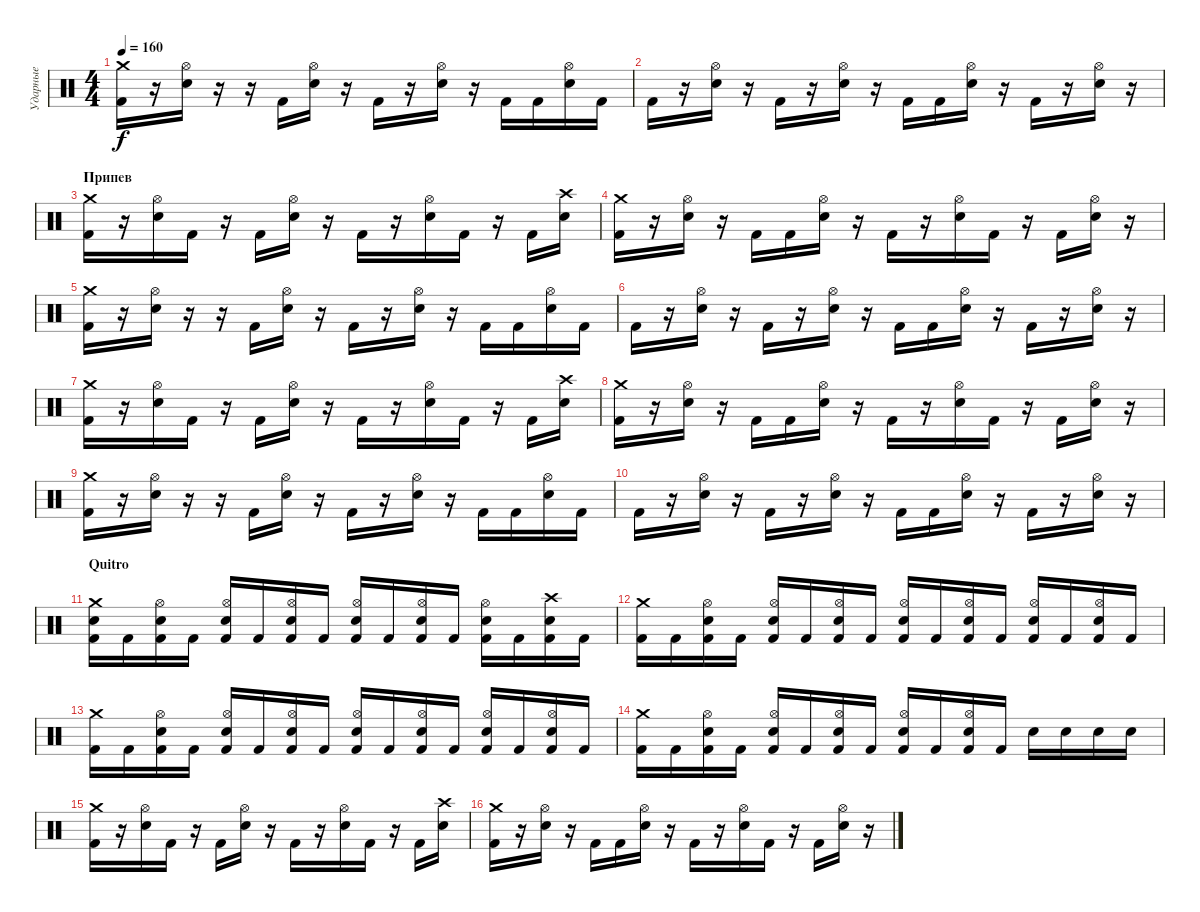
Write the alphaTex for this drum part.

\track ("Ударные" "Ударные") {instrument percussion}
\staff {score}
\articulation defaults
\ts (4 4)
\tempo 160
\clef neutral
\ks c
("Crash medium (hit)" "Kick (hit) 2").16{dy f} r.16 ("Hi-Hat (open)" "Electric Snare (hit)").16 r.16 r.16 "Kick (hit) 2".16 ("Hi-Hat (open)" "Electric Snare (hit)").16 r.16 "Kick (hit) 2".16 r.16 ("Hi-Hat (open)" "Electric Snare (hit)").16 r.16 "Kick (hit) 2".16 "Kick (hit) 2".16 ("Hi-Hat (open)" "Electric Snare (hit)").16 "Kick (hit) 2".16 |
"Kick (hit) 2".16 r.16 ("Hi-Hat (open)" "Electric Snare (hit)").16 r.16 "Kick (hit) 2".16 r.16 ("Hi-Hat (open)" "Electric Snare (hit)").16 r.16 "Kick (hit) 2".16 "Kick (hit) 2".16 ("Hi-Hat (open)" "Electric Snare (hit)").16 r.16 "Kick (hit) 2".16 r.16 ("Hi-Hat (open)" "Electric Snare (hit)").16 r.16 |
\section ("" "Припев")
("Crash medium (hit)" "Kick (hit) 2").16 r.16 ("Hi-Hat (open)" "Electric Snare (hit)").16 "Kick (hit) 2".16 r.16 "Kick (hit) 2".16 ("Hi-Hat (open)" "Electric Snare (hit)").16 r.16 "Kick (hit) 2".16 r.16 ("Hi-Hat (open)" "Electric Snare (hit)").16 "Kick (hit) 2".16 r.16 "Kick (hit) 2".16 ("Crash high (hit)" "Electric Snare (hit)").16 |
("Crash medium (hit)" "Kick (hit) 2").16 r.16 ("Hi-Hat (open)" "Electric Snare (hit)").16 r.16 "Kick (hit) 2".16 "Kick (hit) 2".16 ("Hi-Hat (open)" "Electric Snare (hit)").16 r.16 "Kick (hit) 2".16 r.16 ("Hi-Hat (open)" "Electric Snare (hit)").16 "Kick (hit) 2".16 r.16 "Kick (hit) 2".16 ("Hi-Hat (open)" "Electric Snare (hit)").16 r.16 |
("Crash medium (hit)" "Kick (hit) 2").16 r.16 ("Hi-Hat (open)" "Electric Snare (hit)").16 r.16 r.16 "Kick (hit) 2".16 ("Hi-Hat (open)" "Electric Snare (hit)").16 r.16 "Kick (hit) 2".16 r.16 ("Hi-Hat (open)" "Electric Snare (hit)").16 r.16 "Kick (hit) 2".16 "Kick (hit) 2".16 ("Hi-Hat (open)" "Electric Snare (hit)").16 "Kick (hit) 2".16 |
"Kick (hit) 2".16 r.16 ("Hi-Hat (open)" "Electric Snare (hit)").16 r.16 "Kick (hit) 2".16 r.16 ("Hi-Hat (open)" "Electric Snare (hit)").16 r.16 "Kick (hit) 2".16 "Kick (hit) 2".16 ("Hi-Hat (open)" "Electric Snare (hit)").16 r.16 "Kick (hit) 2".16 r.16 ("Hi-Hat (open)" "Electric Snare (hit)").16 r.16 |
("Crash medium (hit)" "Kick (hit) 2").16 r.16 ("Hi-Hat (open)" "Electric Snare (hit)").16 "Kick (hit) 2".16 r.16 "Kick (hit) 2".16 ("Hi-Hat (open)" "Electric Snare (hit)").16 r.16 "Kick (hit) 2".16 r.16 ("Hi-Hat (open)" "Electric Snare (hit)").16 "Kick (hit) 2".16 r.16 "Kick (hit) 2".16 ("Crash high (hit)" "Electric Snare (hit)").16 |
("Crash medium (hit)" "Kick (hit) 2").16 r.16 ("Hi-Hat (open)" "Electric Snare (hit)").16 r.16 "Kick (hit) 2".16 "Kick (hit) 2".16 ("Hi-Hat (open)" "Electric Snare (hit)").16 r.16 "Kick (hit) 2".16 r.16 ("Hi-Hat (open)" "Electric Snare (hit)").16 "Kick (hit) 2".16 r.16 "Kick (hit) 2".16 ("Hi-Hat (open)" "Electric Snare (hit)").16 r.16 |
("Crash medium (hit)" "Kick (hit) 2").16 r.16 ("Hi-Hat (open)" "Electric Snare (hit)").16 r.16 r.16 "Kick (hit) 2".16 ("Hi-Hat (open)" "Electric Snare (hit)").16 r.16 "Kick (hit) 2".16 r.16 ("Hi-Hat (open)" "Electric Snare (hit)").16 r.16 "Kick (hit) 2".16 "Kick (hit) 2".16 ("Hi-Hat (open)" "Electric Snare (hit)").16 "Kick (hit) 2".16 |
"Kick (hit) 2".16 r.16 ("Hi-Hat (open)" "Electric Snare (hit)").16 r.16 "Kick (hit) 2".16 r.16 ("Hi-Hat (open)" "Electric Snare (hit)").16 r.16 "Kick (hit) 2".16 "Kick (hit) 2".16 ("Hi-Hat (open)" "Electric Snare (hit)").16 r.16 "Kick (hit) 2".16 r.16 ("Hi-Hat (open)" "Electric Snare (hit)").16 r.16 |
\section ("" "Quitro")
("Crash medium (hit)" "Electric Snare (hit)" "Kick (hit) 2").16 "Kick (hit) 2".16 ("Hi-Hat (open)" "Electric Snare (hit)" "Kick (hit) 2").16 "Kick (hit) 2".16 ("Hi-Hat (open)" "Electric Snare (hit)" "Kick (hit) 2").16 "Kick (hit) 2".16 ("Hi-Hat (open)" "Electric Snare (hit)" "Kick (hit) 2").16 "Kick (hit) 2".16 ("Hi-Hat (open)" "Electric Snare (hit)" "Kick (hit) 2").16 "Kick (hit) 2".16 ("Hi-Hat (open)" "Electric Snare (hit)" "Kick (hit) 2").16 "Kick (hit) 2".16 ("Hi-Hat (open)" "Electric Snare (hit)" "Kick (hit) 2").16 "Kick (hit) 2".16 ("Crash high (hit)" "Electric Snare (hit)" "Kick (hit) 2").16 "Kick (hit) 2".16 |
("Crash medium (hit)" "Kick (hit) 2").16 "Kick (hit) 2".16 ("Hi-Hat (open)" "Electric Snare (hit)" "Kick (hit) 2").16 "Kick (hit) 2".16 ("Hi-Hat (open)" "Electric Snare (hit)" "Kick (hit) 2").16 "Kick (hit) 2".16 ("Hi-Hat (open)" "Electric Snare (hit)" "Kick (hit) 2").16 "Kick (hit) 2".16 ("Hi-Hat (open)" "Electric Snare (hit)" "Kick (hit) 2").16 "Kick (hit) 2".16 ("Hi-Hat (open)" "Electric Snare (hit)" "Kick (hit) 2").16 "Kick (hit) 2".16 ("Hi-Hat (open)" "Electric Snare (hit)" "Kick (hit) 2").16 "Kick (hit) 2".16 ("Hi-Hat (open)" "Electric Snare (hit)" "Kick (hit) 2").16 "Kick (hit) 2".16 |
("Crash medium (hit)" "Kick (hit) 2").16 "Kick (hit) 2".16 ("Hi-Hat (open)" "Electric Snare (hit)" "Kick (hit) 2").16 "Kick (hit) 2".16 ("Hi-Hat (open)" "Electric Snare (hit)" "Kick (hit) 2").16 "Kick (hit) 2".16 ("Hi-Hat (open)" "Electric Snare (hit)" "Kick (hit) 2").16 "Kick (hit) 2".16 ("Hi-Hat (open)" "Electric Snare (hit)" "Kick (hit) 2").16 "Kick (hit) 2".16 ("Hi-Hat (open)" "Electric Snare (hit)" "Kick (hit) 2").16 "Kick (hit) 2".16 ("Hi-Hat (open)" "Electric Snare (hit)" "Kick (hit) 2").16 "Kick (hit) 2".16 ("Hi-Hat (open)" "Electric Snare (hit)" "Kick (hit) 2").16 "Kick (hit) 2".16 |
("Crash medium (hit)" "Kick (hit) 2").16 "Kick (hit) 2".16 ("Hi-Hat (open)" "Electric Snare (hit)" "Kick (hit) 2").16 "Kick (hit) 2".16 ("Hi-Hat (open)" "Electric Snare (hit)" "Kick (hit) 2").16 "Kick (hit) 2".16 ("Hi-Hat (open)" "Electric Snare (hit)" "Kick (hit) 2").16 "Kick (hit) 2".16 ("Hi-Hat (open)" "Electric Snare (hit)" "Kick (hit) 2").16 "Kick (hit) 2".16 ("Hi-Hat (open)" "Electric Snare (hit)" "Kick (hit) 2").16 "Kick (hit) 2".16 "Electric Snare (hit)".16 "Electric Snare (hit)".16 "Electric Snare (hit)".16 "Electric Snare (hit)".16 |
("Crash medium (hit)" "Kick (hit) 2").16 r.16 ("Hi-Hat (open)" "Electric Snare (hit)").16 "Kick (hit) 2".16 r.16 "Kick (hit) 2".16 ("Hi-Hat (open)" "Electric Snare (hit)").16 r.16 "Kick (hit) 2".16 r.16 ("Hi-Hat (open)" "Electric Snare (hit)").16 "Kick (hit) 2".16 r.16 "Kick (hit) 2".16 ("Crash high (hit)" "Electric Snare (hit)").16 |
("Crash medium (hit)" "Kick (hit) 2").16 r.16 ("Hi-Hat (open)" "Electric Snare (hit)").16 r.16 "Kick (hit) 2".16 "Kick (hit) 2".16 ("Hi-Hat (open)" "Electric Snare (hit)").16 r.16 "Kick (hit) 2".16 r.16 ("Hi-Hat (open)" "Electric Snare (hit)").16 "Kick (hit) 2".16 r.16 "Kick (hit) 2".16 ("Hi-Hat (open)" "Electric Snare (hit)").16 r.16
